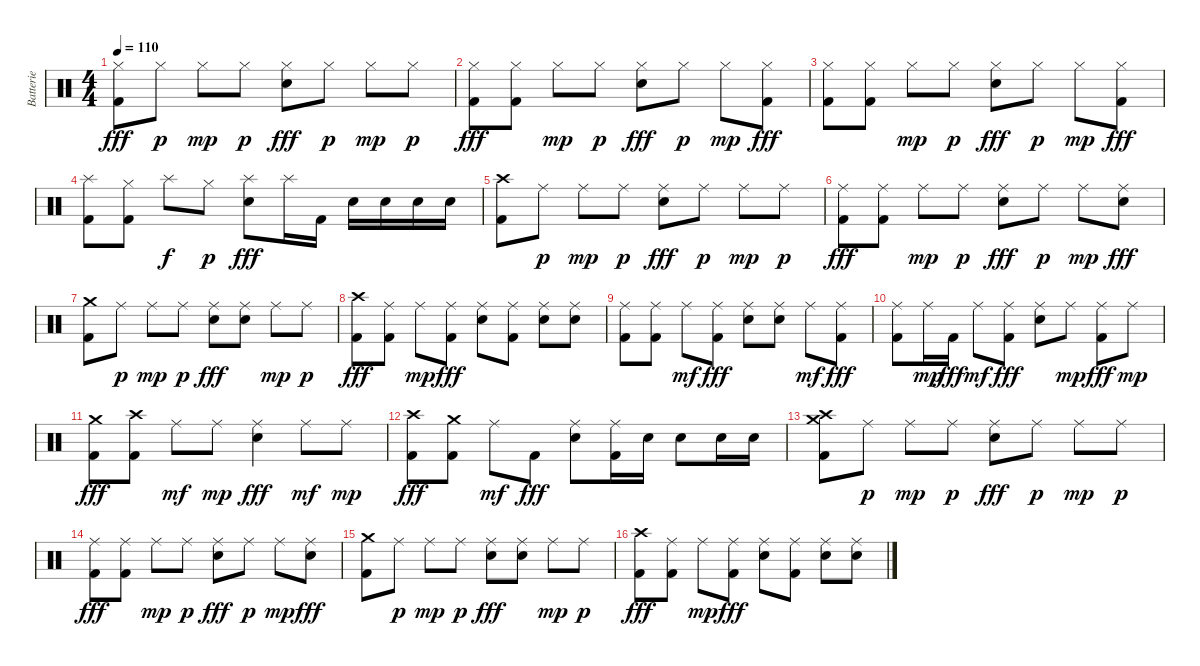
\track ("Batterie" "Batterie") {instrument percussion}
\staff {score}
\articulation defaults
\ts (4 4)
\tempo 110
\clef neutral
\ks c
("Hi-Hat (closed)" "Kick (hit) 2").8{dy fff} "Hi-Hat (closed)".8{dy p} "Hi-Hat (closed)".8{dy mp} "Hi-Hat (closed)".8{dy p} ("Hi-Hat (closed)" "Electric Snare (hit)").8{dy fff} "Hi-Hat (closed)".8{dy p} "Hi-Hat (closed)".8{dy mp} "Hi-Hat (closed)".8{dy p} |
("Hi-Hat (closed)" "Kick (hit) 2").8{dy fff} ("Hi-Hat (closed)" "Kick (hit) 2").8 "Hi-Hat (closed)".8{dy mp} "Hi-Hat (closed)".8{dy p} ("Hi-Hat (closed)" "Electric Snare (hit)").8{dy fff} "Hi-Hat (closed)".8{dy p} "Hi-Hat (closed)".8{dy mp} ("Hi-Hat (closed)" "Kick (hit) 2").8{dy fff} |
("Hi-Hat (closed)" "Kick (hit) 2").8 ("Hi-Hat (closed)" "Kick (hit) 2").8 "Hi-Hat (closed)".8{dy mp} "Hi-Hat (closed)".8{dy p} ("Hi-Hat (closed)" "Electric Snare (hit)").8{dy fff} "Hi-Hat (closed)".8{dy p} "Hi-Hat (closed)".8{dy mp} ("Hi-Hat (closed)" "Kick (hit) 2").8{dy fff} |
("Splash (hit)" "Kick (hit) 2").8 ("Hi-Hat (closed)" "Kick (hit) 2").8 "Splash (hit)".8{dy f} "Hi-Hat (closed)".8{dy p} ("Splash (hit)" "Electric Snare (hit)").8{dy fff} "Splash (hit)".16 "Kick (hit) 2".16 "Electric Snare (hit)".16 "Electric Snare (hit)".16 "Electric Snare (hit)".16 "Electric Snare (hit)".16 |
("Crash high (hit)" "Kick (hit) 2").8 "Ride (middle)".8{dy p} "Ride (middle)".8{dy mp} "Ride (middle)".8{dy p} ("Ride (middle)" "Electric Snare (hit)").8{dy fff} "Ride (middle)".8{dy p} "Ride (middle)".8{dy mp} "Ride (middle)".8{dy p} |
("Ride (middle)" "Kick (hit) 2").8{dy fff} ("Ride (middle)" "Kick (hit) 2").8 "Ride (middle)".8{dy mp} "Ride (middle)".8{dy p} ("Ride (middle)" "Electric Snare (hit)").8{dy fff} "Ride (middle)".8{dy p} "Ride (middle)".8{dy mp} ("Ride (middle)" "Electric Snare (hit)").8{dy fff} |
("Crash medium (hit)" "Kick (hit) 2").8 "Ride (middle)".8{dy p} "Ride (middle)".8{dy mp} "Ride (middle)".8{dy p} ("Ride (middle)" "Electric Snare (hit)").8{dy fff} ("Ride (middle)" "Electric Snare (hit)").8 "Ride (middle)".8{dy mp} "Ride (middle)".8{dy p} |
("Crash high (hit)" "Kick (hit) 2").8{dy fff} ("Ride (middle)" "Kick (hit) 2").8 "Ride (middle)".8{dy mp} ("Ride (middle)" "Kick (hit) 2").8{dy fff} ("Ride (middle)" "Electric Snare (hit)").8 ("Ride (middle)" "Kick (hit) 2").8 ("Ride (middle)" "Electric Snare (hit)").8 ("Ride (middle)" "Electric Snare (hit)").8 |
("Ride (middle)" "Kick (hit) 2").8 ("Ride (middle)" "Kick (hit) 2").8 "Ride (middle)".8{dy mf} ("Ride (middle)" "Kick (hit) 2").8{dy fff} ("Ride (middle)" "Electric Snare (hit)").8 ("Ride (middle)" "Electric Snare (hit)").8 "Ride (middle)".8{dy mf} ("Ride (middle)" "Kick (hit) 2").8{dy fff} |
("Ride (middle)" "Kick (hit) 2").8 "Ride (middle)".16{dy mp} "Kick (hit) 2".16{dy fff} "Ride (middle)".8{dy mf} ("Ride (middle)" "Kick (hit) 2").8{dy fff} ("Ride (middle)" "Electric Snare (hit)").8 "Ride (middle)".8{dy mp} ("Ride (middle)" "Kick (hit) 2").8{dy fff} "Ride (middle)".8{dy mp} |
("Crash medium (hit)" "Kick (hit) 2").8{dy fff} ("Crash high (hit)" "Kick (hit) 2").8 "Ride (middle)".8{dy mf} "Ride (middle)".8{dy mp} ("Ride (middle)" "Electric Snare (hit)").4{dy fff} "Ride (middle)".8{dy mf} "Ride (middle)".8{dy mp} |
("Crash high (hit)" "Kick (hit) 2").8{dy fff} ("Crash medium (hit)" "Kick (hit) 2").8 "Ride (middle)".8{dy mf} "Kick (hit) 2".8{dy fff} ("Ride (middle)" "Electric Snare (hit)").8 ("Ride (middle)" "Kick (hit) 2").16 "Electric Snare (hit)".16 "Electric Snare (hit)".8 "Electric Snare (hit)".16 "Electric Snare (hit)".16 |
("Crash high (hit)" "Crash medium (hit)" "Kick (hit) 2").8 "Ride (middle)".8{dy p} "Ride (middle)".8{dy mp} "Ride (middle)".8{dy p} ("Ride (middle)" "Electric Snare (hit)").8{dy fff} "Ride (middle)".8{dy p} "Ride (middle)".8{dy mp} "Ride (middle)".8{dy p} |
("Ride (middle)" "Kick (hit) 2").8{dy fff} ("Ride (middle)" "Kick (hit) 2").8 "Ride (middle)".8{dy mp} "Ride (middle)".8{dy p} ("Ride (middle)" "Electric Snare (hit)").8{dy fff} "Ride (middle)".8{dy p} "Ride (middle)".8{dy mp} ("Ride (middle)" "Electric Snare (hit)").8{dy fff} |
("Crash medium (hit)" "Kick (hit) 2").8 "Ride (middle)".8{dy p} "Ride (middle)".8{dy mp} "Ride (middle)".8{dy p} ("Ride (middle)" "Electric Snare (hit)").8{dy fff} ("Ride (middle)" "Electric Snare (hit)").8 "Ride (middle)".8{dy mp} "Ride (middle)".8{dy p} |
("Crash high (hit)" "Kick (hit) 2").8{dy fff} ("Ride (middle)" "Kick (hit) 2").8 "Ride (middle)".8{dy mp} ("Ride (middle)" "Kick (hit) 2").8{dy fff} ("Ride (middle)" "Electric Snare (hit)").8 ("Ride (middle)" "Kick (hit) 2").8 ("Ride (middle)" "Electric Snare (hit)").8 ("Ride (middle)" "Electric Snare (hit)").8
